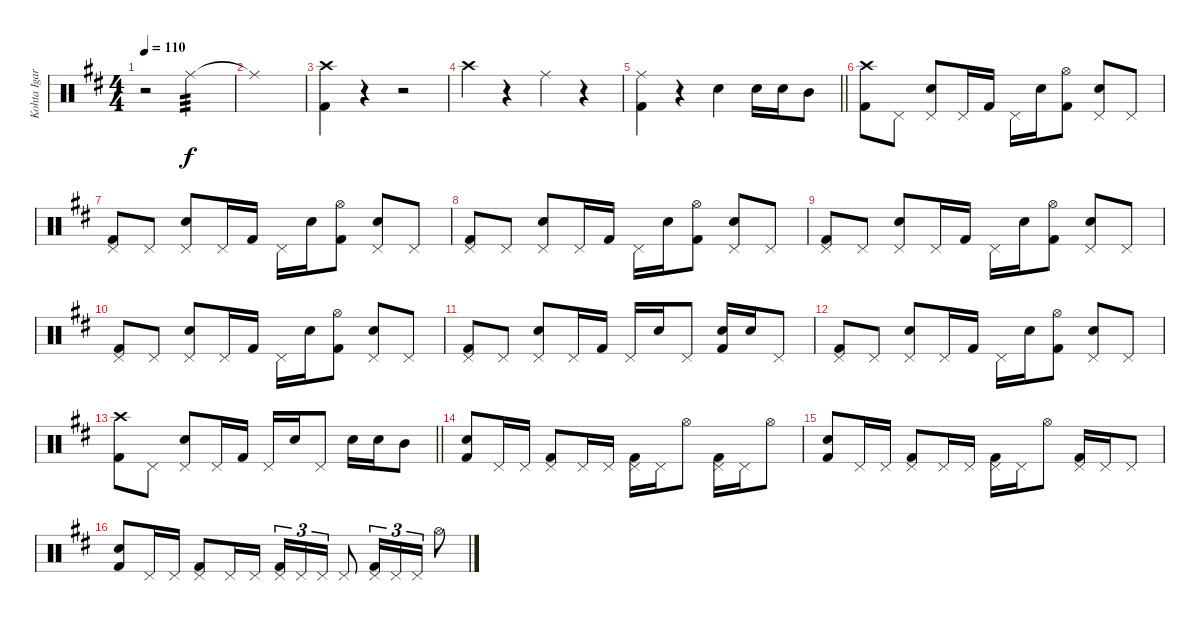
\track ("Kohta Igarashi" "Kohta Igar") {instrument percussion}
\staff {score}
\articulation defaults
\ts (4 4)
\tempo 110
\clef neutral
\ks d
r.2{dy f} "Ride (middle)".2{tp 3 volume 8} |
"Ride (middle)"{t}.1 |
("Crash high (hit)" "Kick (hit) 2").4{volume 12} r.4 r.2 |
"Crash high (hit)".4 r.4 "Ride (middle)".4 r.4 |
\barLineRight lightlight
("Ride (middle)" "Kick (hit) 2").4 r.4 "Electric Snare (hit)".4 "Electric Snare (hit)".16 "Electric Snare (hit)".16 "Mid Tom (hit)".8 |
("Crash high (hit)" "Kick (hit) 2").8 "Pedal Hi-Hat (hit)".8 ("Pedal Hi-Hat (hit)" "Electric Snare (hit)").8 "Pedal Hi-Hat (hit)".16 "Kick (hit) 2".16 "Pedal Hi-Hat (hit)".16 "Electric Snare (hit)".16 ("Hi-Hat (open)" "Kick (hit) 2").8 ("Pedal Hi-Hat (hit)" "Electric Snare (hit)").8 "Pedal Hi-Hat (hit)".8 |
("Pedal Hi-Hat (hit)" "Kick (hit) 2").8 "Pedal Hi-Hat (hit)".8 ("Pedal Hi-Hat (hit)" "Electric Snare (hit)").8 "Pedal Hi-Hat (hit)".16 "Kick (hit) 2".16 "Pedal Hi-Hat (hit)".16 "Electric Snare (hit)".16 ("Hi-Hat (open)" "Kick (hit) 2").8 ("Pedal Hi-Hat (hit)" "Electric Snare (hit)").8 "Pedal Hi-Hat (hit)".8 |
("Pedal Hi-Hat (hit)" "Kick (hit) 2").8 "Pedal Hi-Hat (hit)".8 ("Pedal Hi-Hat (hit)" "Electric Snare (hit)").8 "Pedal Hi-Hat (hit)".16 "Kick (hit) 2".16 "Pedal Hi-Hat (hit)".16 "Electric Snare (hit)".16 ("Hi-Hat (open)" "Kick (hit) 2").8 ("Pedal Hi-Hat (hit)" "Electric Snare (hit)").8 "Pedal Hi-Hat (hit)".8 |
("Pedal Hi-Hat (hit)" "Kick (hit) 2").8 "Pedal Hi-Hat (hit)".8 ("Pedal Hi-Hat (hit)" "Electric Snare (hit)").8 "Pedal Hi-Hat (hit)".16 "Kick (hit) 2".16 "Pedal Hi-Hat (hit)".16 "Electric Snare (hit)".16 ("Hi-Hat (open)" "Kick (hit) 2").8 ("Pedal Hi-Hat (hit)" "Electric Snare (hit)").8 "Pedal Hi-Hat (hit)".8 |
("Pedal Hi-Hat (hit)" "Kick (hit) 2").8 "Pedal Hi-Hat (hit)".8 ("Pedal Hi-Hat (hit)" "Electric Snare (hit)").8 "Pedal Hi-Hat (hit)".16 "Kick (hit) 2".16 "Pedal Hi-Hat (hit)".16 "Electric Snare (hit)".16 ("Hi-Hat (open)" "Kick (hit) 2").8 ("Pedal Hi-Hat (hit)" "Electric Snare (hit)").8 "Pedal Hi-Hat (hit)".8 |
("Pedal Hi-Hat (hit)" "Kick (hit) 2").8 "Pedal Hi-Hat (hit)".8 ("Pedal Hi-Hat (hit)" "Electric Snare (hit)").8 "Pedal Hi-Hat (hit)".16 "Kick (hit) 2".16 "Pedal Hi-Hat (hit)".16 "Electric Snare (hit)".16 "Pedal Hi-Hat (hit)".8 ("Electric Snare (hit)" "Kick (hit) 2").16 "Electric Snare (hit)".16 "Pedal Hi-Hat (hit)".8 |
("Pedal Hi-Hat (hit)" "Kick (hit) 2").8 "Pedal Hi-Hat (hit)".8 ("Pedal Hi-Hat (hit)" "Electric Snare (hit)").8 "Pedal Hi-Hat (hit)".16 "Kick (hit) 2".16 "Pedal Hi-Hat (hit)".16 "Electric Snare (hit)".16 ("Hi-Hat (open)" "Kick (hit) 2").8 ("Pedal Hi-Hat (hit)" "Electric Snare (hit)").8 "Pedal Hi-Hat (hit)".8 |
\barLineRight lightlight
("Crash high (hit)" "Kick (hit) 2").8 "Pedal Hi-Hat (hit)".8 ("Pedal Hi-Hat (hit)" "Electric Snare (hit)").8 "Pedal Hi-Hat (hit)".16 "Kick (hit) 2".16 "Pedal Hi-Hat (hit)".16 "Electric Snare (hit)".16 "Pedal Hi-Hat (hit)".8 "Electric Snare (hit)".16 "Electric Snare (hit)".16 "Mid Tom (hit)".8 |
("Electric Snare (hit)" "Kick (hit) 2").8 "Pedal Hi-Hat (hit)".16 "Pedal Hi-Hat (hit)".16 ("Pedal Hi-Hat (hit)" "Kick (hit) 2").8 "Pedal Hi-Hat (hit)".16 "Pedal Hi-Hat (hit)".16 ("Pedal Hi-Hat (hit)" "Kick (hit) 2").16 "Pedal Hi-Hat (hit)".16 "Hi-Hat (open)".8 ("Pedal Hi-Hat (hit)" "Kick (hit) 2").16 "Pedal Hi-Hat (hit)".16 "Hi-Hat (open)".8 |
("Electric Snare (hit)" "Kick (hit) 2").8 "Pedal Hi-Hat (hit)".16 "Pedal Hi-Hat (hit)".16 ("Pedal Hi-Hat (hit)" "Kick (hit) 2").8 "Pedal Hi-Hat (hit)".16 "Pedal Hi-Hat (hit)".16 ("Pedal Hi-Hat (hit)" "Kick (hit) 2").16 "Pedal Hi-Hat (hit)".16 "Hi-Hat (open)".8 ("Pedal Hi-Hat (hit)" "Kick (hit) 2").16 "Pedal Hi-Hat (hit)".16 "Pedal Hi-Hat (hit)".8 |
("Electric Snare (hit)" "Kick (hit) 2").8 "Pedal Hi-Hat (hit)".16 "Pedal Hi-Hat (hit)".16 ("Pedal Hi-Hat (hit)" "Kick (hit) 2").8 "Pedal Hi-Hat (hit)".16 "Pedal Hi-Hat (hit)".16 ("Pedal Hi-Hat (hit)" "Kick (hit) 2").16{tu (3 2)} "Pedal Hi-Hat (hit)".16{tu (3 2)} "Pedal Hi-Hat (hit)".16{tu (3 2)} "Pedal Hi-Hat (hit)".8 ("Pedal Hi-Hat (hit)" "Kick (hit) 2").16{tu (3 2)} "Pedal Hi-Hat (hit)".16{tu (3 2)} "Pedal Hi-Hat (hit)".16{tu (3 2)} "Hi-Hat (open)".8
